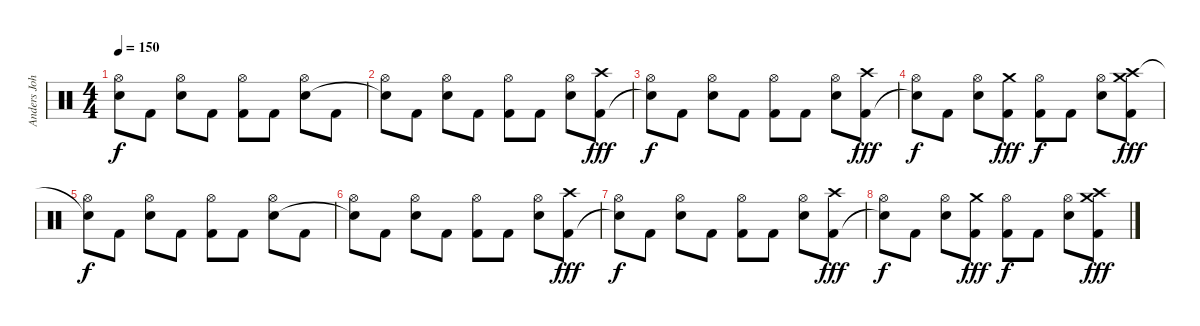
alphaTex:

\track ("Anders Johansson" "Anders Joh") {instrument percussion}
\staff {score}
\articulation defaults
\ts (4 4)
\tempo 150
\clef neutral
\ks c
("Hi-Hat (open)" "Snare (hit)"{t}).8{dy f} "Kick (hit) 2".8 ("Hi-Hat (open)" "Electric Snare (hit)").8 "Kick (hit) 2".8 ("Hi-Hat (open)" "Kick (hit) 2").8 "Kick (hit) 2".8 ("Hi-Hat (open)" "Electric Snare (hit)").8 "Kick (hit) 2".8 |
("Hi-Hat (open)" "Snare (hit)"{t}).8 "Kick (hit) 2".8 ("Hi-Hat (open)" "Electric Snare (hit)").8 "Kick (hit) 2".8 ("Hi-Hat (open)" "Kick (hit) 2").8 "Kick (hit) 2".8 ("Hi-Hat (open)" "Electric Snare (hit)").8 ("Crash high (hit)" "Kick (hit) 2").8{dy fff} |
("Hi-Hat (open)" "Snare (hit)"{t}).8{dy f} "Kick (hit) 2".8 ("Hi-Hat (open)" "Electric Snare (hit)").8 "Kick (hit) 2".8 ("Hi-Hat (open)" "Kick (hit) 2").8 "Kick (hit) 2".8 ("Hi-Hat (open)" "Electric Snare (hit)").8 ("Crash high (hit)" "Kick (hit) 2").8{dy fff} |
("Hi-Hat (open)" "Snare (hit)"{t}).8{dy f} "Kick (hit) 2".8 ("Hi-Hat (open)" "Electric Snare (hit)").8 ("Crash medium (hit)" "Kick (hit) 2").8{dy fff} ("Hi-Hat (open)" "Kick (hit) 2").8{dy f} "Kick (hit) 2".8 ("Hi-Hat (open)" "Electric Snare (hit)").8 ("Crash medium (hit)" "Crash high (hit)" "Kick (hit) 2").8{dy fff} |
("Hi-Hat (open)" "Snare (hit)"{t}).8{dy f} "Kick (hit) 2".8 ("Hi-Hat (open)" "Electric Snare (hit)").8 "Kick (hit) 2".8 ("Hi-Hat (open)" "Kick (hit) 2").8 "Kick (hit) 2".8 ("Hi-Hat (open)" "Electric Snare (hit)").8 "Kick (hit) 2".8 |
("Hi-Hat (open)" "Snare (hit)"{t}).8 "Kick (hit) 2".8 ("Hi-Hat (open)" "Electric Snare (hit)").8 "Kick (hit) 2".8 ("Hi-Hat (open)" "Kick (hit) 2").8 "Kick (hit) 2".8 ("Hi-Hat (open)" "Electric Snare (hit)").8 ("Crash high (hit)" "Kick (hit) 2").8{dy fff} |
("Hi-Hat (open)" "Snare (hit)"{t}).8{dy f} "Kick (hit) 2".8 ("Hi-Hat (open)" "Electric Snare (hit)").8 "Kick (hit) 2".8 ("Hi-Hat (open)" "Kick (hit) 2").8 "Kick (hit) 2".8 ("Hi-Hat (open)" "Electric Snare (hit)").8 ("Crash high (hit)" "Kick (hit) 2").8{dy fff} |
("Hi-Hat (open)" "Snare (hit)"{t}).8{dy f} "Kick (hit) 2".8 ("Hi-Hat (open)" "Electric Snare (hit)").8 ("Crash medium (hit)" "Kick (hit) 2").8{dy fff} ("Hi-Hat (open)" "Kick (hit) 2").8{dy f} "Kick (hit) 2".8 ("Hi-Hat (open)" "Electric Snare (hit)").8 ("Crash medium (hit)" "Crash high (hit)" "Kick (hit) 2").8{dy fff}
